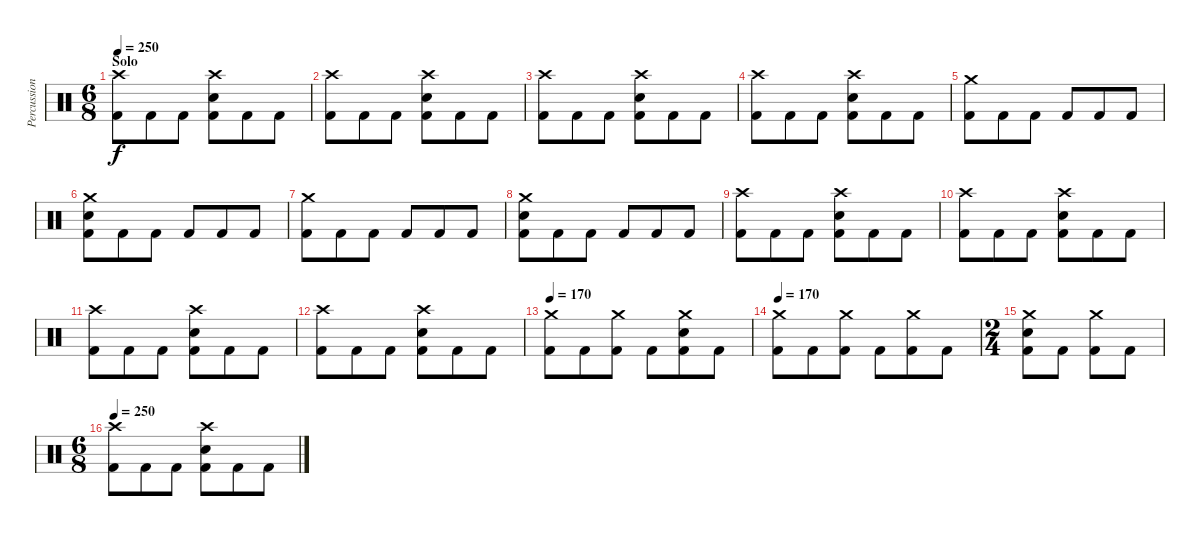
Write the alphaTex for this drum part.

\track ("Percussion" "Percussion") {instrument percussion}
\staff {score}
\articulation defaults
\ts (6 8)
\section ("" "Solo")
\tempo 250
\clef neutral
\ks c
("Crash high (hit)" "Kick (hit) 2").8{dy f} "Kick (hit) 2".8 "Kick (hit) 2".8 ("Crash high (hit)" "Electric Snare (hit)" "Kick (hit) 2").8 "Kick (hit) 2".8 "Kick (hit) 2".8 |
("Crash high (hit)" "Kick (hit) 2").8 "Kick (hit) 2".8 "Kick (hit) 2".8 ("Crash high (hit)" "Electric Snare (hit)" "Kick (hit) 2").8 "Kick (hit) 2".8 "Kick (hit) 2".8 |
("Crash high (hit)" "Kick (hit) 2").8 "Kick (hit) 2".8 "Kick (hit) 2".8 ("Crash high (hit)" "Electric Snare (hit)" "Kick (hit) 2").8 "Kick (hit) 2".8 "Kick (hit) 2".8 |
("Crash high (hit)" "Kick (hit) 2").8 "Kick (hit) 2".8 "Kick (hit) 2".8 ("Crash high (hit)" "Electric Snare (hit)" "Kick (hit) 2").8 "Kick (hit) 2".8 "Kick (hit) 2".8 |
("Crash medium (hit)" "Kick (hit) 2").8 "Kick (hit) 2".8 "Kick (hit) 2".8 "Kick (hit) 2".8 "Kick (hit) 2".8 "Kick (hit) 2".8 |
("Crash medium (hit)" "Electric Snare (hit)" "Kick (hit) 2").8 "Kick (hit) 2".8 "Kick (hit) 2".8 "Kick (hit) 2".8 "Kick (hit) 2".8 "Kick (hit) 2".8 |
("Crash medium (hit)" "Kick (hit) 2").8 "Kick (hit) 2".8 "Kick (hit) 2".8 "Kick (hit) 2".8 "Kick (hit) 2".8 "Kick (hit) 2".8 |
("Crash medium (hit)" "Electric Snare (hit)" "Kick (hit) 2").8 "Kick (hit) 2".8 "Kick (hit) 2".8 "Kick (hit) 2".8 "Kick (hit) 2".8 "Kick (hit) 2".8 |
("Crash high (hit)" "Kick (hit) 2").8 "Kick (hit) 2".8 "Kick (hit) 2".8 ("Crash high (hit)" "Electric Snare (hit)" "Kick (hit) 2").8 "Kick (hit) 2".8 "Kick (hit) 2".8 |
("Crash high (hit)" "Kick (hit) 2").8 "Kick (hit) 2".8 "Kick (hit) 2".8 ("Crash high (hit)" "Electric Snare (hit)" "Kick (hit) 2").8 "Kick (hit) 2".8 "Kick (hit) 2".8 |
("Crash high (hit)" "Kick (hit) 2").8 "Kick (hit) 2".8 "Kick (hit) 2".8 ("Crash high (hit)" "Electric Snare (hit)" "Kick (hit) 2").8 "Kick (hit) 2".8 "Kick (hit) 2".8 |
("Crash high (hit)" "Kick (hit) 2").8 "Kick (hit) 2".8 "Kick (hit) 2".8 ("Crash high (hit)" "Electric Snare (hit)" "Kick (hit) 2").8 "Kick (hit) 2".8 "Kick (hit) 2".8 |
\tempo 170
("Crash medium (hit)" "Kick (hit) 2").8 "Kick (hit) 2".8 ("Crash medium (hit)" "Kick (hit) 2").8 "Kick (hit) 2".8 ("Crash medium (hit)" "Electric Snare (hit)" "Kick (hit) 2").8 "Kick (hit) 2".8 |
\tempo 170
("Crash medium (hit)" "Kick (hit) 2").8 "Kick (hit) 2".8 ("Crash medium (hit)" "Kick (hit) 2").8 "Kick (hit) 2".8 ("Crash medium (hit)" "Kick (hit) 2").8 "Kick (hit) 2".8 |
\ts (2 4)
("Crash medium (hit)" "Electric Snare (hit)" "Kick (hit) 2").8 "Kick (hit) 2".8 ("Crash medium (hit)" "Kick (hit) 2").8 "Kick (hit) 2".8 |
\ts (6 8)
\tempo 250
("Crash high (hit)" "Kick (hit) 2").8 "Kick (hit) 2".8 "Kick (hit) 2".8 ("Crash high (hit)" "Electric Snare (hit)" "Kick (hit) 2").8 "Kick (hit) 2".8 "Kick (hit) 2".8
